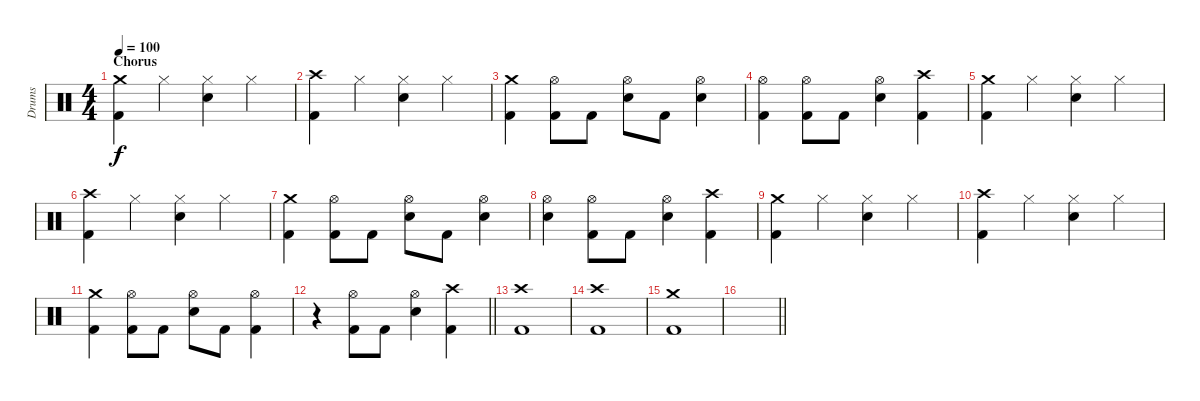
\track ("Drums" "Drums") {instrument percussion}
\staff {score}
\articulation defaults
\ts (4 4)
\section ("" "Chorus")
\tempo 100
\clef neutral
\ks c
("Crash medium (hit)" "Kick (hit) 2").4{dy f} "Hi-Hat (closed)".4 ("Snare (hit) 2" "Hi-Hat (closed)").4 "Hi-Hat (closed)".4 |
("Crash high (hit)" "Kick (hit) 2").4 "Hi-Hat (closed)".4 ("Snare (hit) 2" "Hi-Hat (closed)").4 "Hi-Hat (closed)".4 |
("Crash medium (hit)" "Kick (hit) 2").4 ("Hi-Hat (open)" "Kick (hit) 2").8 "Kick (hit) 2".8 ("Snare (hit) 2" "Hi-Hat (open)").8 "Kick (hit) 2".8 ("Snare (hit) 2" "Hi-Hat (open)").4 |
("Hi-Hat (open)" "Kick (hit) 2").4 ("Hi-Hat (open)" "Kick (hit) 2").8 "Kick (hit) 2".8 ("Snare (hit) 2" "Hi-Hat (open)").4 ("Crash high (hit)" "Kick (hit) 2").4 |
("Crash medium (hit)" "Kick (hit) 2").4 "Hi-Hat (closed)".4 ("Snare (hit) 2" "Hi-Hat (closed)").4 "Hi-Hat (closed)".4 |
("Crash high (hit)" "Kick (hit) 2").4 "Hi-Hat (closed)".4 ("Snare (hit) 2" "Hi-Hat (closed)").4 "Hi-Hat (closed)".4 |
("Crash medium (hit)" "Kick (hit) 2").4 ("Hi-Hat (open)" "Kick (hit) 2").8 "Kick (hit) 2".8 ("Snare (hit) 2" "Hi-Hat (open)").8 "Kick (hit) 2".8 ("Snare (hit) 2" "Hi-Hat (open)").4 |
("Snare (hit) 2" "Hi-Hat (open)").4 ("Hi-Hat (open)" "Kick (hit) 2").8 "Kick (hit) 2".8 ("Snare (hit) 2" "Hi-Hat (open)").4 ("Crash high (hit)" "Kick (hit) 2").4 |
("Crash medium (hit)" "Kick (hit) 2").4 "Hi-Hat (closed)".4 ("Snare (hit) 2" "Hi-Hat (closed)").4 "Hi-Hat (closed)".4 |
("Crash high (hit)" "Kick (hit) 2").4 "Hi-Hat (closed)".4 ("Snare (hit) 2" "Hi-Hat (closed)").4 "Hi-Hat (closed)".4 |
("Crash medium (hit)" "Kick (hit) 2").4 ("Hi-Hat (open)" "Kick (hit) 2").8 "Kick (hit) 2".8 ("Snare (hit) 2" "Hi-Hat (open)").8 "Kick (hit) 2".8 ("Hi-Hat (open)" "Kick (hit) 2").4 |
\barLineRight lightlight
r.4 ("Hi-Hat (open)" "Kick (hit) 2").8 "Kick (hit) 2".8 ("Snare (hit) 2" "Hi-Hat (open)").4 ("Crash high (hit)" "Kick (hit) 2").4 |
("Crash high (hit)" "Kick (hit) 2").1 |
("Crash high (hit)" "Kick (hit) 2").1 |
("Crash medium (hit)" "Kick (hit) 2").1 |
\barLineRight lightlight
